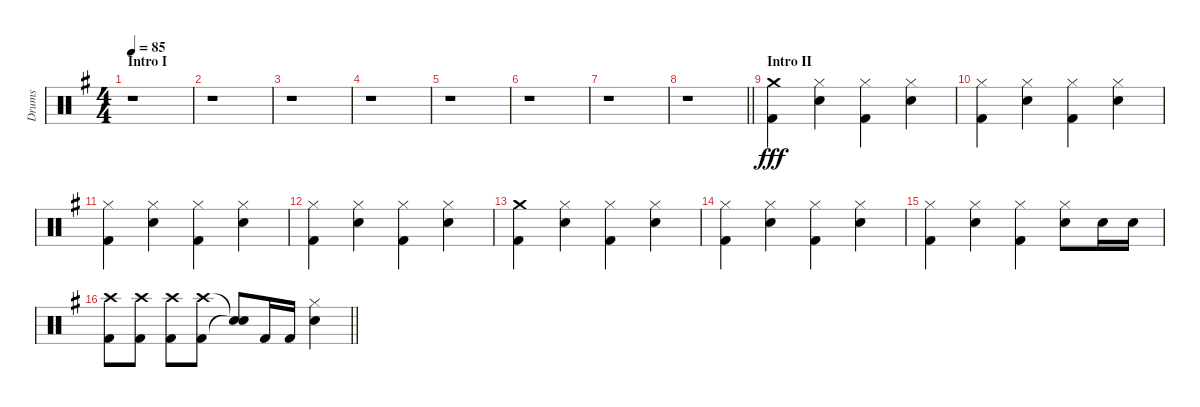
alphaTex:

\track ("Drums" "Drums") {instrument percussion}
\staff {score}
\articulation defaults
\ts (4 4)
\section ("" "Intro I")
\tempo 85
\clef neutral
\ks g
r.1{dy fff} |
r.1 |
r.1 |
r.1 |
r.1 |
r.1 |
r.1 |
\barLineRight lightlight
r.1 |
\section ("" "Intro II")
("Crash medium (hit)" "Kick (hit) 2").4 ("Hi-Hat (closed)" "Snare (hit) 2").4 ("Hi-Hat (closed)" "Kick (hit) 2").4 ("Hi-Hat (closed)" "Snare (hit) 2").4 |
("Hi-Hat (closed)" "Kick (hit) 2").4 ("Hi-Hat (closed)" "Snare (hit) 2").4 ("Hi-Hat (closed)" "Kick (hit) 2").4 ("Hi-Hat (closed)" "Snare (hit) 2").4 |
("Hi-Hat (closed)" "Kick (hit) 2").4 ("Hi-Hat (closed)" "Snare (hit) 2").4 ("Hi-Hat (closed)" "Kick (hit) 2").4 ("Hi-Hat (closed)" "Snare (hit) 2").4 |
("Hi-Hat (closed)" "Kick (hit) 2").4 ("Hi-Hat (closed)" "Snare (hit) 2").4 ("Hi-Hat (closed)" "Kick (hit) 2").4 ("Hi-Hat (closed)" "Snare (hit) 2").4 |
("Crash medium (hit)" "Kick (hit) 2").4 ("Hi-Hat (closed)" "Snare (hit) 2").4 ("Hi-Hat (closed)" "Kick (hit) 2").4 ("Hi-Hat (closed)" "Snare (hit) 2").4 |
("Hi-Hat (closed)" "Kick (hit) 2").4 ("Hi-Hat (closed)" "Snare (hit) 2").4 ("Hi-Hat (closed)" "Kick (hit) 2").4 ("Hi-Hat (closed)" "Snare (hit) 2").4 |
("Hi-Hat (closed)" "Kick (hit) 2").4 ("Hi-Hat (closed)" "Snare (hit) 2").4 ("Hi-Hat (closed)" "Kick (hit) 2").4 ("Hi-Hat (closed)" "Snare (hit) 2").8 "Snare (hit) 2".16 "Snare (hit) 2".16 |
\barLineRight lightlight
("Crash high (hit)" "Kick (hit) 2").8 ("Crash high (hit)" "Kick (hit) 2").8 ("Crash high (hit)" "Kick (hit) 2").8 ("Crash high (hit)" "Kick (hit) 2").8 ("Snare (hit)"{t} "Snare (hit)"{t}).8 "Kick (hit) 2".16 "Kick (hit) 2".16 ("Hi-Hat (closed)" "Snare (hit) 2").4
